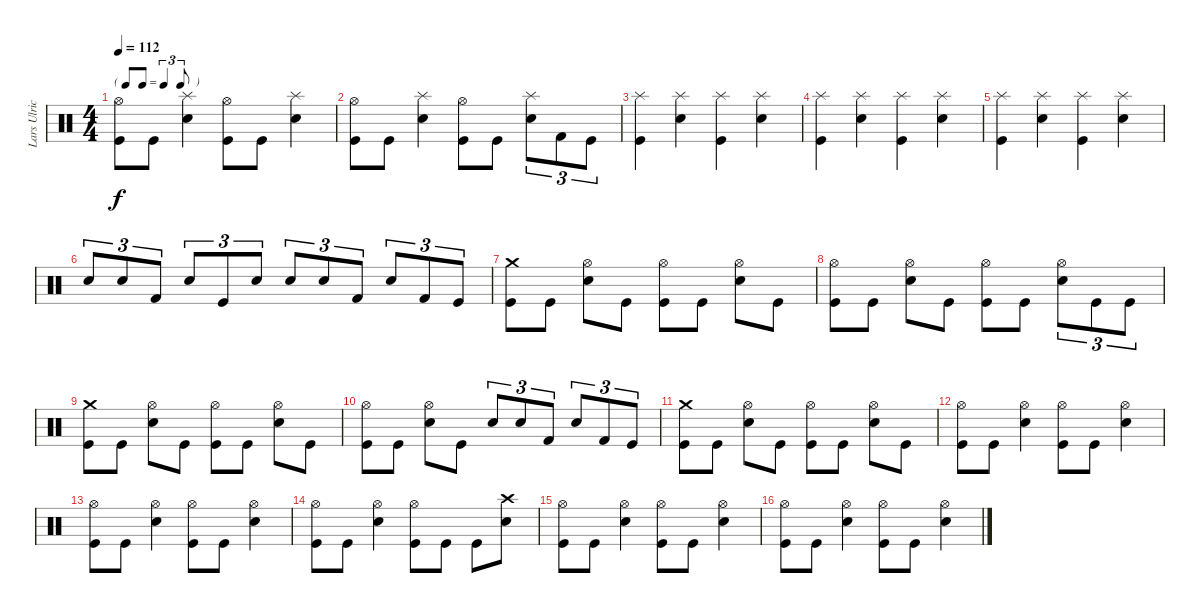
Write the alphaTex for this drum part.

\track ("Lars Ulrich (Drums)" "Lars Ulric") {instrument percussion}
\staff {score}
\articulation defaults
\ts (4 4)
\tf triplet8th
\tempo 112
\clef neutral
\ks c
("Hi-Hat (open)" "Kick (hit)").8{dy f} "Kick (hit)".8 ("Splash (hit)" "Electric Snare (hit)").4 ("Hi-Hat (open)" "Kick (hit)").8 "Kick (hit)".8 ("Splash (hit)" "Electric Snare (hit)").4 |
("Hi-Hat (open)" "Kick (hit)").8 "Kick (hit)".8 ("Splash (hit)" "Electric Snare (hit)").4 ("Hi-Hat (open)" "Kick (hit)").8 "Kick (hit)".8 ("Splash (hit)" "Electric Snare (hit)").8{tu (3 2)} "Kick (hit) 2".8{tu (3 2)} "Kick (hit)".8{tu (3 2)} |
("Splash (hit)" "Kick (hit)").4 ("Splash (hit)" "Electric Snare (hit)").4 ("Splash (hit)" "Kick (hit)").4 ("Splash (hit)" "Electric Snare (hit)").4 |
("Splash (hit)" "Kick (hit)").4 ("Splash (hit)" "Electric Snare (hit)").4 ("Splash (hit)" "Kick (hit)").4 ("Splash (hit)" "Electric Snare (hit)").4 |
("Splash (hit)" "Kick (hit)").4 ("Splash (hit)" "Electric Snare (hit)").4 ("Splash (hit)" "Kick (hit)").4 ("Splash (hit)" "Electric Snare (hit)").4 |
"Electric Snare (hit)".8{tu (3 2)} "Snare (hit) 2".8{tu (3 2)} "Kick (hit) 2".8{tu (3 2)} "Electric Snare (hit)".8{tu (3 2)} "Kick (hit)".8{tu (3 2)} "Snare (hit) 2".8{tu (3 2)} "Electric Snare (hit)".8{tu (3 2)} "Electric Snare (hit)".8{tu (3 2)} "Kick (hit) 2".8{tu (3 2)} "Snare (hit) 2".8{tu (3 2)} "Kick (hit) 2".8{tu (3 2)} "Kick (hit)".8{tu (3 2)} |
("Crash medium (hit)" "Kick (hit)").8 "Kick (hit)".8 ("Hi-Hat (open)" "Electric Snare (hit)").8 "Kick (hit)".8 ("Hi-Hat (open)" "Kick (hit)").8 "Kick (hit)".8 ("Hi-Hat (open)" "Electric Snare (hit)").8 "Kick (hit)".8 |
("Hi-Hat (open)" "Kick (hit)").8 "Kick (hit)".8 ("Hi-Hat (open)" "Electric Snare (hit)").8 "Kick (hit)".8 ("Hi-Hat (open)" "Kick (hit)").8 "Kick (hit)".8 ("Hi-Hat (open)" "Electric Snare (hit)").8{tu (3 2)} "Kick (hit)".8{tu (3 2)} "Kick (hit)".8{tu (3 2)} |
("Crash medium (hit)" "Kick (hit)").8 "Kick (hit)".8 ("Hi-Hat (open)" "Electric Snare (hit)").8 "Kick (hit)".8 ("Hi-Hat (open)" "Kick (hit)").8 "Kick (hit)".8 ("Hi-Hat (open)" "Electric Snare (hit)").8 "Kick (hit)".8 |
("Hi-Hat (open)" "Kick (hit)").8 "Kick (hit)".8 ("Hi-Hat (open)" "Electric Snare (hit)").8 "Kick (hit)".8 "Electric Snare (hit)".8{tu (3 2)} "Snare (hit) 2".8{tu (3 2)} "Kick (hit) 2".8{tu (3 2)} "Electric Snare (hit)".8{tu (3 2)} "Kick (hit) 2".8{tu (3 2)} "Kick (hit)".8{tu (3 2)} |
("Crash medium (hit)" "Kick (hit)").8 "Kick (hit)".8 ("Hi-Hat (open)" "Electric Snare (hit)").8 "Kick (hit)".8 ("Hi-Hat (open)" "Kick (hit)").8 "Kick (hit)".8 ("Hi-Hat (open)" "Electric Snare (hit)").8 "Kick (hit)".8 |
("Hi-Hat (open)" "Kick (hit)").8 "Kick (hit)".8 ("Hi-Hat (open)" "Electric Snare (hit)").4 ("Hi-Hat (open)" "Kick (hit)").8 "Kick (hit)".8 ("Hi-Hat (open)" "Electric Snare (hit)").4 |
("Hi-Hat (open)" "Kick (hit)").8 "Kick (hit)".8 ("Hi-Hat (open)" "Electric Snare (hit)").4 ("Hi-Hat (open)" "Kick (hit)").8 "Kick (hit)".8 ("Hi-Hat (open)" "Electric Snare (hit)").4 |
("Hi-Hat (open)" "Kick (hit)").8 "Kick (hit)".8 ("Hi-Hat (open)" "Electric Snare (hit)").4 ("Hi-Hat (open)" "Kick (hit)").8 "Kick (hit)".8 "Kick (hit)".8 ("Crash high (hit)" "Electric Snare (hit)").8 |
("Hi-Hat (open)" "Kick (hit)").8 "Kick (hit)".8 ("Hi-Hat (open)" "Electric Snare (hit)").4 ("Hi-Hat (open)" "Kick (hit)").8 "Kick (hit)".8 ("Hi-Hat (open)" "Electric Snare (hit)").4 |
("Hi-Hat (open)" "Kick (hit)").8 "Kick (hit)".8 ("Hi-Hat (open)" "Electric Snare (hit)").4 ("Hi-Hat (open)" "Kick (hit)").8 "Kick (hit)".8 ("Hi-Hat (open)" "Electric Snare (hit)").4
